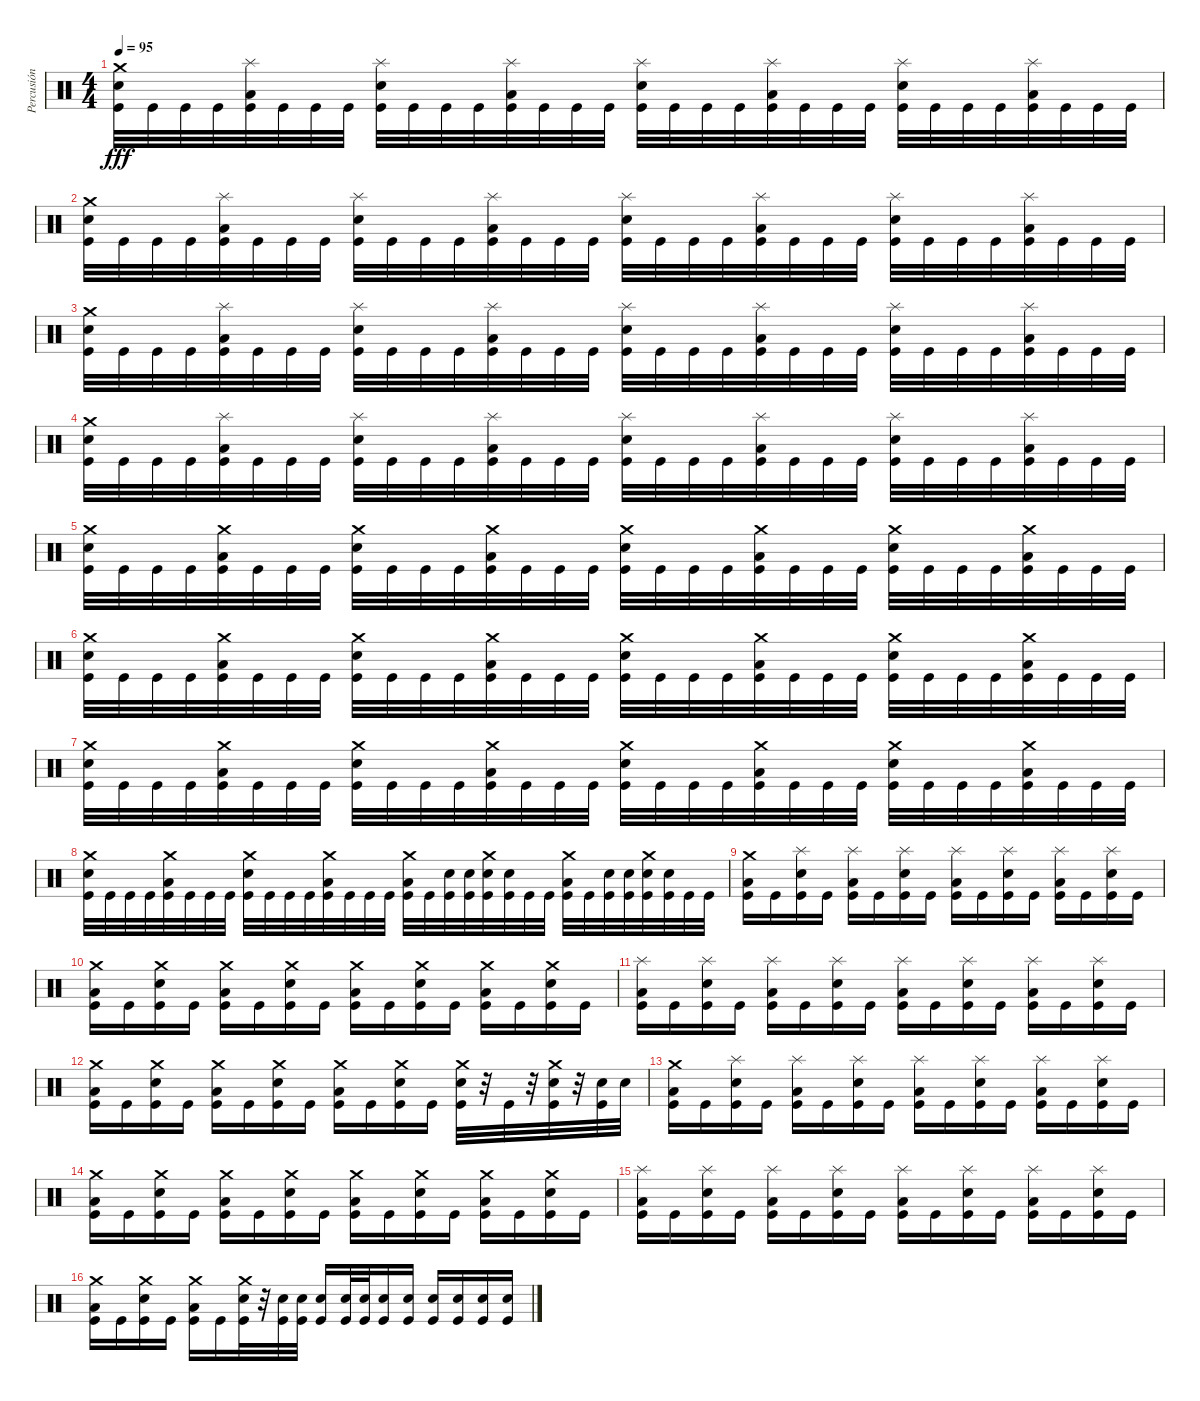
\track ("Percusión" "Percusión") {instrument percussion}
\staff {score}
\articulation defaults
\ts (4 4)
\tempo 95
\clef neutral
\ks c
("Crash medium (hit)" "Snare (hit) 2" "Kick (hit)").32{dy fff} "Kick (hit)".32 "Kick (hit)".32 "Kick (hit)".32 ("Splash (hit)" "Low Floor Tom (hit)" "Kick (hit)").32 "Kick (hit)".32 "Kick (hit)".32 "Kick (hit)".32 ("Splash (hit)" "Snare (hit) 2" "Kick (hit)").32 "Kick (hit)".32 "Kick (hit)".32 "Kick (hit)".32 ("Splash (hit)" "Low Floor Tom (hit)" "Kick (hit)").32 "Kick (hit)".32 "Kick (hit)".32 "Kick (hit)".32 ("Splash (hit)" "Snare (hit) 2" "Kick (hit)").32 "Kick (hit)".32 "Kick (hit)".32 "Kick (hit)".32 ("Splash (hit)" "Low Floor Tom (hit)" "Kick (hit)").32 "Kick (hit)".32 "Kick (hit)".32 "Kick (hit)".32 ("Splash (hit)" "Snare (hit) 2" "Kick (hit)").32 "Kick (hit)".32 "Kick (hit)".32 "Kick (hit)".32 ("Splash (hit)" "Low Floor Tom (hit)" "Kick (hit)").32 "Kick (hit)".32 "Kick (hit)".32 "Kick (hit)".32 |
("Crash medium (hit)" "Snare (hit) 2" "Kick (hit)").32 "Kick (hit)".32 "Kick (hit)".32 "Kick (hit)".32 ("Splash (hit)" "Low Floor Tom (hit)" "Kick (hit)").32 "Kick (hit)".32 "Kick (hit)".32 "Kick (hit)".32 ("Splash (hit)" "Snare (hit) 2" "Kick (hit)").32 "Kick (hit)".32 "Kick (hit)".32 "Kick (hit)".32 ("Splash (hit)" "Low Floor Tom (hit)" "Kick (hit)").32 "Kick (hit)".32 "Kick (hit)".32 "Kick (hit)".32 ("Splash (hit)" "Snare (hit) 2" "Kick (hit)").32 "Kick (hit)".32 "Kick (hit)".32 "Kick (hit)".32 ("Splash (hit)" "Low Floor Tom (hit)" "Kick (hit)").32 "Kick (hit)".32 "Kick (hit)".32 "Kick (hit)".32 ("Splash (hit)" "Snare (hit) 2" "Kick (hit)").32 "Kick (hit)".32 "Kick (hit)".32 "Kick (hit)".32 ("Splash (hit)" "Low Floor Tom (hit)" "Kick (hit)").32 "Kick (hit)".32 "Kick (hit)".32 "Kick (hit)".32 |
("Crash medium (hit)" "Snare (hit) 2" "Kick (hit)").32 "Kick (hit)".32 "Kick (hit)".32 "Kick (hit)".32 ("Splash (hit)" "Low Floor Tom (hit)" "Kick (hit)").32 "Kick (hit)".32 "Kick (hit)".32 "Kick (hit)".32 ("Splash (hit)" "Snare (hit) 2" "Kick (hit)").32 "Kick (hit)".32 "Kick (hit)".32 "Kick (hit)".32 ("Splash (hit)" "Low Floor Tom (hit)" "Kick (hit)").32 "Kick (hit)".32 "Kick (hit)".32 "Kick (hit)".32 ("Splash (hit)" "Snare (hit) 2" "Kick (hit)").32 "Kick (hit)".32 "Kick (hit)".32 "Kick (hit)".32 ("Splash (hit)" "Low Floor Tom (hit)" "Kick (hit)").32 "Kick (hit)".32 "Kick (hit)".32 "Kick (hit)".32 ("Splash (hit)" "Snare (hit) 2" "Kick (hit)").32 "Kick (hit)".32 "Kick (hit)".32 "Kick (hit)".32 ("Splash (hit)" "Low Floor Tom (hit)" "Kick (hit)").32 "Kick (hit)".32 "Kick (hit)".32 "Kick (hit)".32 |
("Crash medium (hit)" "Snare (hit) 2" "Kick (hit)").32 "Kick (hit)".32 "Kick (hit)".32 "Kick (hit)".32 ("Splash (hit)" "Low Floor Tom (hit)" "Kick (hit)").32 "Kick (hit)".32 "Kick (hit)".32 "Kick (hit)".32 ("Splash (hit)" "Snare (hit) 2" "Kick (hit)").32 "Kick (hit)".32 "Kick (hit)".32 "Kick (hit)".32 ("Splash (hit)" "Low Floor Tom (hit)" "Kick (hit)").32 "Kick (hit)".32 "Kick (hit)".32 "Kick (hit)".32 ("Splash (hit)" "Snare (hit) 2" "Kick (hit)").32 "Kick (hit)".32 "Kick (hit)".32 "Kick (hit)".32 ("Splash (hit)" "Low Floor Tom (hit)" "Kick (hit)").32 "Kick (hit)".32 "Kick (hit)".32 "Kick (hit)".32 ("Splash (hit)" "Snare (hit) 2" "Kick (hit)").32 "Kick (hit)".32 "Kick (hit)".32 "Kick (hit)".32 ("Splash (hit)" "Low Floor Tom (hit)" "Kick (hit)").32 "Kick (hit)".32 "Kick (hit)".32 "Kick (hit)".32 |
("Crash medium (hit)" "Snare (hit) 2" "Kick (hit)").32 "Kick (hit)".32 "Kick (hit)".32 "Kick (hit)".32 ("Crash medium (hit)" "Low Floor Tom (hit)" "Kick (hit)").32 "Kick (hit)".32 "Kick (hit)".32 "Kick (hit)".32 ("Crash medium (hit)" "Snare (hit) 2" "Kick (hit)").32 "Kick (hit)".32 "Kick (hit)".32 "Kick (hit)".32 ("Crash medium (hit)" "Low Floor Tom (hit)" "Kick (hit)").32 "Kick (hit)".32 "Kick (hit)".32 "Kick (hit)".32 ("Crash medium (hit)" "Snare (hit) 2" "Kick (hit)").32 "Kick (hit)".32 "Kick (hit)".32 "Kick (hit)".32 ("Crash medium (hit)" "Low Floor Tom (hit)" "Kick (hit)").32 "Kick (hit)".32 "Kick (hit)".32 "Kick (hit)".32 ("Crash medium (hit)" "Snare (hit) 2" "Kick (hit)").32 "Kick (hit)".32 "Kick (hit)".32 "Kick (hit)".32 ("Crash medium (hit)" "Low Floor Tom (hit)" "Kick (hit)").32 "Kick (hit)".32 "Kick (hit)".32 "Kick (hit)".32 |
("Crash medium (hit)" "Snare (hit) 2" "Kick (hit)").32 "Kick (hit)".32 "Kick (hit)".32 "Kick (hit)".32 ("Crash medium (hit)" "Low Floor Tom (hit)" "Kick (hit)").32 "Kick (hit)".32 "Kick (hit)".32 "Kick (hit)".32 ("Crash medium (hit)" "Snare (hit) 2" "Kick (hit)").32 "Kick (hit)".32 "Kick (hit)".32 "Kick (hit)".32 ("Crash medium (hit)" "Low Floor Tom (hit)" "Kick (hit)").32 "Kick (hit)".32 "Kick (hit)".32 "Kick (hit)".32 ("Crash medium (hit)" "Snare (hit) 2" "Kick (hit)").32 "Kick (hit)".32 "Kick (hit)".32 "Kick (hit)".32 ("Crash medium (hit)" "Low Floor Tom (hit)" "Kick (hit)").32 "Kick (hit)".32 "Kick (hit)".32 "Kick (hit)".32 ("Crash medium (hit)" "Snare (hit) 2" "Kick (hit)").32 "Kick (hit)".32 "Kick (hit)".32 "Kick (hit)".32 ("Crash medium (hit)" "Low Floor Tom (hit)" "Kick (hit)").32 "Kick (hit)".32 "Kick (hit)".32 "Kick (hit)".32 |
("Crash medium (hit)" "Snare (hit) 2" "Kick (hit)").32 "Kick (hit)".32 "Kick (hit)".32 "Kick (hit)".32 ("Crash medium (hit)" "Low Floor Tom (hit)" "Kick (hit)").32 "Kick (hit)".32 "Kick (hit)".32 "Kick (hit)".32 ("Crash medium (hit)" "Snare (hit) 2" "Kick (hit)").32 "Kick (hit)".32 "Kick (hit)".32 "Kick (hit)".32 ("Crash medium (hit)" "Low Floor Tom (hit)" "Kick (hit)").32 "Kick (hit)".32 "Kick (hit)".32 "Kick (hit)".32 ("Crash medium (hit)" "Snare (hit) 2" "Kick (hit)").32 "Kick (hit)".32 "Kick (hit)".32 "Kick (hit)".32 ("Crash medium (hit)" "Low Floor Tom (hit)" "Kick (hit)").32 "Kick (hit)".32 "Kick (hit)".32 "Kick (hit)".32 ("Crash medium (hit)" "Snare (hit) 2" "Kick (hit)").32 "Kick (hit)".32 "Kick (hit)".32 "Kick (hit)".32 ("Crash medium (hit)" "Low Floor Tom (hit)" "Kick (hit)").32 "Kick (hit)".32 "Kick (hit)".32 "Kick (hit)".32 |
("Crash medium (hit)" "Snare (hit) 2" "Kick (hit)").32 "Kick (hit)".32 "Kick (hit)".32 "Kick (hit)".32 ("Crash medium (hit)" "Low Floor Tom (hit)" "Kick (hit)").32 "Kick (hit)".32 "Kick (hit)".32 "Kick (hit)".32 ("Crash medium (hit)" "Snare (hit) 2" "Kick (hit)").32 "Kick (hit)".32 "Kick (hit)".32 "Kick (hit)".32 ("Crash medium (hit)" "Low Floor Tom (hit)" "Kick (hit)").32 "Kick (hit)".32 "Kick (hit)".32 "Kick (hit)".32 ("Crash medium (hit)" "Low Floor Tom (hit)" "Kick (hit)").32 "Kick (hit)".32 ("Snare (hit) 2" "Kick (hit)").32 ("Snare (hit) 2" "Kick (hit)").32 ("Crash medium (hit)" "Snare (hit) 2" "Kick (hit)").32 ("Snare (hit) 2" "Kick (hit)").32 "Kick (hit)".32 "Kick (hit)".32 ("Crash medium (hit)" "Low Floor Tom (hit)" "Kick (hit)").32 "Kick (hit)".32 ("Snare (hit) 2" "Kick (hit)").32 ("Snare (hit) 2" "Kick (hit)").32 ("Crash medium (hit)" "Snare (hit) 2" "Kick (hit)").32 ("Snare (hit) 2" "Kick (hit)").32 "Kick (hit)".32 "Kick (hit)".32 |
("Crash medium (hit)" "Low Floor Tom (hit)" "Kick (hit)").16 "Kick (hit)".16 ("Splash (hit)" "Snare (hit) 2" "Kick (hit)").16 "Kick (hit)".16 ("Splash (hit)" "Low Floor Tom (hit)" "Kick (hit)").16 "Kick (hit)".16 ("Splash (hit)" "Snare (hit) 2" "Kick (hit)").16 "Kick (hit)".16 ("Splash (hit)" "Low Floor Tom (hit)" "Kick (hit)").16 "Kick (hit)".16 ("Splash (hit)" "Snare (hit) 2" "Kick (hit)").16 "Kick (hit)".16 ("Splash (hit)" "Low Floor Tom (hit)" "Kick (hit)").16 "Kick (hit)".16 ("Splash (hit)" "Snare (hit) 2" "Kick (hit)").16 "Kick (hit)".16 |
("Crash medium (hit)" "Low Floor Tom (hit)" "Kick (hit)").16 "Kick (hit)".16 ("Crash medium (hit)" "Snare (hit) 2" "Kick (hit)").16 "Kick (hit)".16 ("Crash medium (hit)" "Low Floor Tom (hit)" "Kick (hit)").16 "Kick (hit)".16 ("Crash medium (hit)" "Snare (hit) 2" "Kick (hit)").16 "Kick (hit)".16 ("Crash medium (hit)" "Low Floor Tom (hit)" "Kick (hit)").16 "Kick (hit)".16 ("Crash medium (hit)" "Snare (hit) 2" "Kick (hit)").16 "Kick (hit)".16 ("Crash medium (hit)" "Low Floor Tom (hit)" "Kick (hit)").16 "Kick (hit)".16 ("Crash medium (hit)" "Snare (hit) 2" "Kick (hit)").16 "Kick (hit)".16 |
("Splash (hit)" "Low Floor Tom (hit)" "Kick (hit)").16 "Kick (hit)".16 ("Splash (hit)" "Snare (hit) 2" "Kick (hit)").16 "Kick (hit)".16 ("Splash (hit)" "Low Floor Tom (hit)" "Kick (hit)").16 "Kick (hit)".16 ("Splash (hit)" "Snare (hit) 2" "Kick (hit)").16 "Kick (hit)".16 ("Splash (hit)" "Low Floor Tom (hit)" "Kick (hit)").16 "Kick (hit)".16 ("Splash (hit)" "Snare (hit) 2" "Kick (hit)").16 "Kick (hit)".16 ("Splash (hit)" "Low Floor Tom (hit)" "Kick (hit)").16 "Kick (hit)".16 ("Splash (hit)" "Snare (hit) 2" "Kick (hit)").16 "Kick (hit)".16 |
("Crash medium (hit)" "Low Floor Tom (hit)" "Kick (hit)").16 "Kick (hit)".16 ("Crash medium (hit)" "Snare (hit) 2" "Kick (hit)").16 "Kick (hit)".16 ("Crash medium (hit)" "Low Floor Tom (hit)" "Kick (hit)").16 "Kick (hit)".16 ("Crash medium (hit)" "Snare (hit) 2" "Kick (hit)").16 "Kick (hit)".16 ("Crash medium (hit)" "Low Floor Tom (hit)" "Kick (hit)").16 "Kick (hit)".16 ("Crash medium (hit)" "Snare (hit) 2" "Kick (hit)").16 "Kick (hit)".16 ("Crash medium (hit)" "Snare (hit) 2" "Kick (hit)").32 r.32 "Kick (hit)".32 r.32 ("Crash medium (hit)" "Snare (hit) 2" "Kick (hit)").32 r.32 ("Snare (hit) 2" "Kick (hit)").32 "Snare (hit) 2".32 |
("Crash medium (hit)" "Low Floor Tom (hit)" "Kick (hit)").16 "Kick (hit)".16 ("Splash (hit)" "Snare (hit) 2" "Kick (hit)").16 "Kick (hit)".16 ("Splash (hit)" "Low Floor Tom (hit)" "Kick (hit)").16 "Kick (hit)".16 ("Splash (hit)" "Snare (hit) 2" "Kick (hit)").16 "Kick (hit)".16 ("Splash (hit)" "Low Floor Tom (hit)" "Kick (hit)").16 "Kick (hit)".16 ("Splash (hit)" "Snare (hit) 2" "Kick (hit)").16 "Kick (hit)".16 ("Splash (hit)" "Low Floor Tom (hit)" "Kick (hit)").16 "Kick (hit)".16 ("Splash (hit)" "Snare (hit) 2" "Kick (hit)").16 "Kick (hit)".16 |
("Crash medium (hit)" "Low Floor Tom (hit)" "Kick (hit)").16 "Kick (hit)".16 ("Crash medium (hit)" "Snare (hit) 2" "Kick (hit)").16 "Kick (hit)".16 ("Crash medium (hit)" "Low Floor Tom (hit)" "Kick (hit)").16 "Kick (hit)".16 ("Crash medium (hit)" "Snare (hit) 2" "Kick (hit)").16 "Kick (hit)".16 ("Crash medium (hit)" "Low Floor Tom (hit)" "Kick (hit)").16 "Kick (hit)".16 ("Crash medium (hit)" "Snare (hit) 2" "Kick (hit)").16 "Kick (hit)".16 ("Crash medium (hit)" "Low Floor Tom (hit)" "Kick (hit)").16 "Kick (hit)".16 ("Crash medium (hit)" "Snare (hit) 2" "Kick (hit)").16 "Kick (hit)".16 |
("Splash (hit)" "Low Floor Tom (hit)" "Kick (hit)").16 "Kick (hit)".16 ("Splash (hit)" "Snare (hit) 2" "Kick (hit)").16 "Kick (hit)".16 ("Splash (hit)" "Low Floor Tom (hit)" "Kick (hit)").16 "Kick (hit)".16 ("Splash (hit)" "Snare (hit) 2" "Kick (hit)").16 "Kick (hit)".16 ("Splash (hit)" "Low Floor Tom (hit)" "Kick (hit)").16 "Kick (hit)".16 ("Splash (hit)" "Snare (hit) 2" "Kick (hit)").16 "Kick (hit)".16 ("Splash (hit)" "Low Floor Tom (hit)" "Kick (hit)").16 "Kick (hit)".16 ("Splash (hit)" "Snare (hit) 2" "Kick (hit)").16 "Kick (hit)".16 |
("Crash medium (hit)" "Low Floor Tom (hit)" "Kick (hit)").16 "Kick (hit)".16 ("Crash medium (hit)" "Snare (hit) 2" "Kick (hit)").16 "Kick (hit)".16 ("Crash medium (hit)" "Low Floor Tom (hit)" "Kick (hit)").16 "Kick (hit)".16 ("Crash medium (hit)" "Snare (hit) 2" "Kick (hit)").32 r.32 ("Snare (hit) 2" "Kick (hit)").32 ("Snare (hit) 2" "Kick (hit)").32 ("Snare (hit) 2" "Kick (hit)").16 ("Snare (hit) 2" "Kick (hit)").32 ("Snare (hit) 2" "Kick (hit)").32 ("Snare (hit) 2" "Kick (hit)").16 ("Snare (hit) 2" "Kick (hit)").16 ("Snare (hit) 2" "Kick (hit)").16 ("Snare (hit) 2" "Kick (hit)").16 ("Snare (hit) 2" "Kick (hit)").16 ("Snare (hit) 2" "Kick (hit)").16
